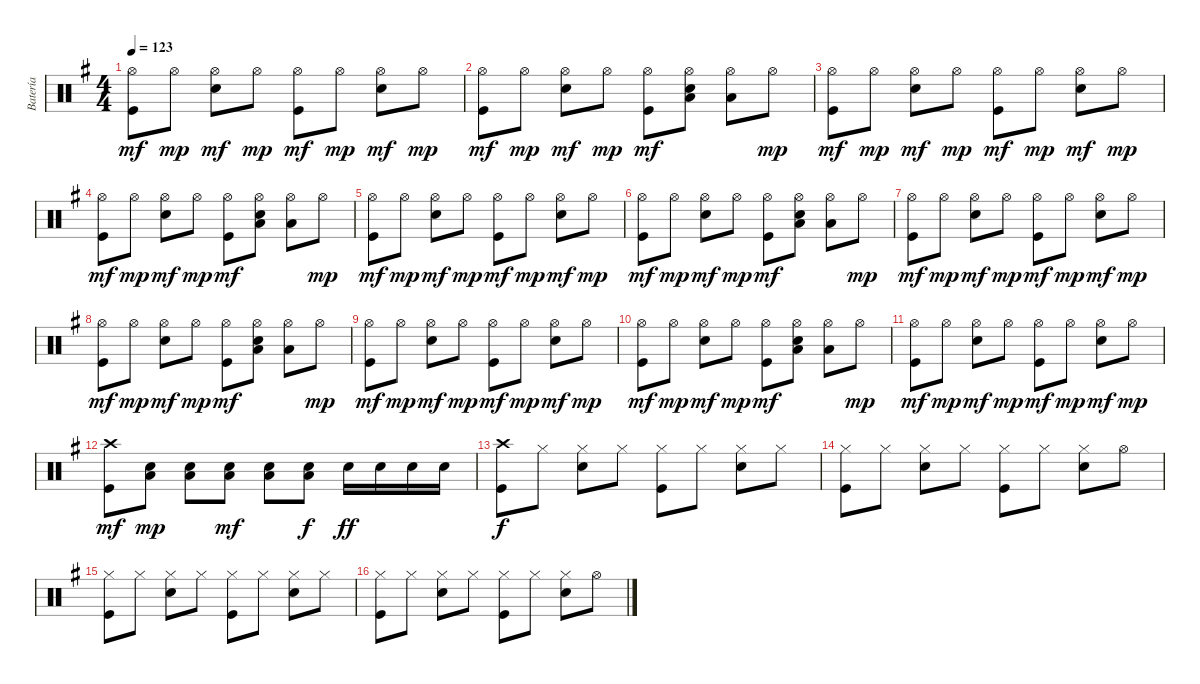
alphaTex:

\track ("Batería" "Batería") {instrument percussion}
\staff {score}
\articulation defaults
\ts (4 4)
\tempo 123
\clef neutral
\ks g
("Hi-Hat (open)" "Kick (hit)").8{dy mf} "Hi-Hat (open)".8{dy mp} ("Hi-Hat (open)" "Snare (hit) 2").8{dy mf} "Hi-Hat (open)".8{dy mp} ("Hi-Hat (open)" "Kick (hit)").8{dy mf} "Hi-Hat (open)".8{dy mp} ("Hi-Hat (open)" "Snare (hit) 2").8{dy mf} "Hi-Hat (open)".8{dy mp} |
("Hi-Hat (open)" "Kick (hit)").8{dy mf} "Hi-Hat (open)".8{dy mp} ("Hi-Hat (open)" "Snare (hit) 2").8{dy mf} "Hi-Hat (open)".8{dy mp} ("Hi-Hat (open)" "Kick (hit)").8{dy mf} ("Hi-Hat (open)" "Low Floor Tom (hit)" "Snare (hit) 2").8 ("Hi-Hat (open)" "Low Floor Tom (hit)").8 "Hi-Hat (open)".8{dy mp} |
("Hi-Hat (open)" "Kick (hit)").8{dy mf} "Hi-Hat (open)".8{dy mp} ("Hi-Hat (open)" "Snare (hit) 2").8{dy mf} "Hi-Hat (open)".8{dy mp} ("Hi-Hat (open)" "Kick (hit)").8{dy mf} "Hi-Hat (open)".8{dy mp} ("Hi-Hat (open)" "Snare (hit) 2").8{dy mf} "Hi-Hat (open)".8{dy mp} |
("Hi-Hat (open)" "Kick (hit)").8{dy mf} "Hi-Hat (open)".8{dy mp} ("Hi-Hat (open)" "Snare (hit) 2").8{dy mf} "Hi-Hat (open)".8{dy mp} ("Hi-Hat (open)" "Kick (hit)").8{dy mf} ("Hi-Hat (open)" "Low Floor Tom (hit)" "Snare (hit) 2").8 ("Hi-Hat (open)" "Low Floor Tom (hit)").8 "Hi-Hat (open)".8{dy mp} |
("Hi-Hat (open)" "Kick (hit)").8{dy mf} "Hi-Hat (open)".8{dy mp} ("Hi-Hat (open)" "Snare (hit) 2").8{dy mf} "Hi-Hat (open)".8{dy mp} ("Hi-Hat (open)" "Kick (hit)").8{dy mf} "Hi-Hat (open)".8{dy mp} ("Hi-Hat (open)" "Snare (hit) 2").8{dy mf} "Hi-Hat (open)".8{dy mp} |
("Hi-Hat (open)" "Kick (hit)").8{dy mf} "Hi-Hat (open)".8{dy mp} ("Hi-Hat (open)" "Snare (hit) 2").8{dy mf} "Hi-Hat (open)".8{dy mp} ("Hi-Hat (open)" "Kick (hit)").8{dy mf} ("Hi-Hat (open)" "Low Floor Tom (hit)" "Snare (hit) 2").8 ("Hi-Hat (open)" "Low Floor Tom (hit)").8 "Hi-Hat (open)".8{dy mp} |
("Hi-Hat (open)" "Kick (hit)").8{dy mf} "Hi-Hat (open)".8{dy mp} ("Hi-Hat (open)" "Snare (hit) 2").8{dy mf} "Hi-Hat (open)".8{dy mp} ("Hi-Hat (open)" "Kick (hit)").8{dy mf} "Hi-Hat (open)".8{dy mp} ("Hi-Hat (open)" "Snare (hit) 2").8{dy mf} "Hi-Hat (open)".8{dy mp} |
("Hi-Hat (open)" "Kick (hit)").8{dy mf} "Hi-Hat (open)".8{dy mp} ("Hi-Hat (open)" "Snare (hit) 2").8{dy mf} "Hi-Hat (open)".8{dy mp} ("Hi-Hat (open)" "Kick (hit)").8{dy mf} ("Hi-Hat (open)" "Low Floor Tom (hit)" "Snare (hit) 2").8 ("Hi-Hat (open)" "Low Floor Tom (hit)").8 "Hi-Hat (open)".8{dy mp} |
("Hi-Hat (open)" "Kick (hit)").8{dy mf} "Hi-Hat (open)".8{dy mp} ("Hi-Hat (open)" "Snare (hit) 2").8{dy mf} "Hi-Hat (open)".8{dy mp} ("Hi-Hat (open)" "Kick (hit)").8{dy mf} "Hi-Hat (open)".8{dy mp} ("Hi-Hat (open)" "Snare (hit) 2").8{dy mf} "Hi-Hat (open)".8{dy mp} |
("Hi-Hat (open)" "Kick (hit)").8{dy mf} "Hi-Hat (open)".8{dy mp} ("Hi-Hat (open)" "Snare (hit) 2").8{dy mf} "Hi-Hat (open)".8{dy mp} ("Hi-Hat (open)" "Kick (hit)").8{dy mf} ("Hi-Hat (open)" "Low Floor Tom (hit)" "Snare (hit) 2").8 ("Hi-Hat (open)" "Low Floor Tom (hit)").8 "Hi-Hat (open)".8{dy mp} |
("Hi-Hat (open)" "Kick (hit)").8{dy mf} "Hi-Hat (open)".8{dy mp} ("Hi-Hat (open)" "Snare (hit) 2").8{dy mf} "Hi-Hat (open)".8{dy mp} ("Hi-Hat (open)" "Kick (hit)").8{dy mf} "Hi-Hat (open)".8{dy mp} ("Hi-Hat (open)" "Snare (hit) 2").8{dy mf} "Hi-Hat (open)".8{dy mp} |
("Crash high (hit)" "Kick (hit)").8{dy mf} ("Snare (hit) 2" "Low Floor Tom (hit)").8{dy mp} ("Snare (hit) 2" "Low Floor Tom (hit)").8 ("Snare (hit) 2" "Low Floor Tom (hit)").8{dy mf} ("Snare (hit) 2" "Low Floor Tom (hit)").8 ("Snare (hit) 2" "Low Floor Tom (hit)").8{dy f} "Snare (hit) 2".16{dy ff} "Snare (hit) 2".16 "Snare (hit) 2".16 "Snare (hit) 2".16 |
("Crash high (hit)" "Kick (hit)").8{dy f} "Hi-Hat (closed)".8 ("Hi-Hat (closed)" "Snare (hit) 2").8 "Hi-Hat (closed)".8 ("Hi-Hat (closed)" "Kick (hit)").8 "Hi-Hat (closed)".8 ("Hi-Hat (closed)" "Snare (hit) 2").8 "Hi-Hat (closed)".8 |
("Hi-Hat (closed)" "Kick (hit)").8 "Hi-Hat (closed)".8 ("Hi-Hat (closed)" "Snare (hit) 2").8 "Hi-Hat (closed)".8 ("Hi-Hat (closed)" "Kick (hit)").8 "Hi-Hat (closed)".8 ("Hi-Hat (closed)" "Snare (hit) 2").8 "Hi-Hat (open)".8 |
("Hi-Hat (closed)" "Kick (hit)").8 "Hi-Hat (closed)".8 ("Hi-Hat (closed)" "Snare (hit) 2").8 "Hi-Hat (closed)".8 ("Hi-Hat (closed)" "Kick (hit)").8 "Hi-Hat (closed)".8 ("Hi-Hat (closed)" "Snare (hit) 2").8 "Hi-Hat (closed)".8 |
("Hi-Hat (closed)" "Kick (hit)").8 "Hi-Hat (closed)".8 ("Hi-Hat (closed)" "Snare (hit) 2").8 "Hi-Hat (closed)".8 ("Hi-Hat (closed)" "Kick (hit)").8 "Hi-Hat (closed)".8 ("Hi-Hat (closed)" "Snare (hit) 2").8 "Hi-Hat (open)".8
